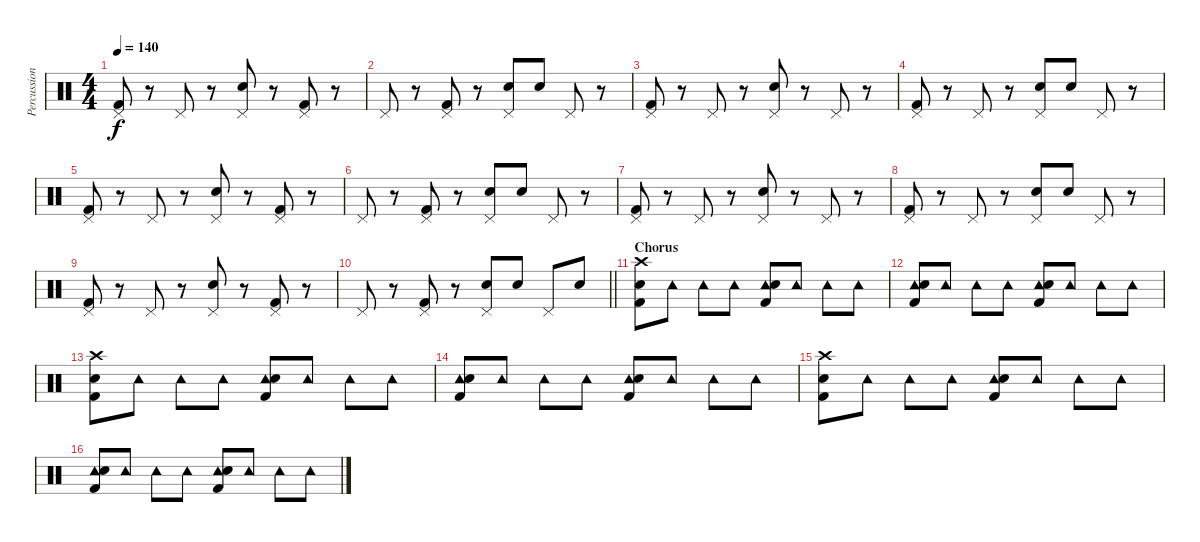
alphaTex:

\track ("Percussion" "Percussion") {instrument percussion}
\staff {score}
\articulation defaults
\ts (4 4)
\tempo 140
\clef neutral
\ks c
("Pedal Hi-Hat (hit)" "Kick (hit) 2").8{dy f} r.8 "Pedal Hi-Hat (hit)".8 r.8 ("Pedal Hi-Hat (hit)" "Snare (hit) 2").8 r.8 ("Pedal Hi-Hat (hit)" "Kick (hit) 2").8 r.8 |
"Pedal Hi-Hat (hit)".8 r.8 ("Pedal Hi-Hat (hit)" "Kick (hit) 2").8 r.8 ("Pedal Hi-Hat (hit)" "Snare (hit) 2").8 "Snare (hit) 2".8 "Pedal Hi-Hat (hit)".8 r.8 |
("Pedal Hi-Hat (hit)" "Kick (hit) 2").8 r.8 "Pedal Hi-Hat (hit)".8 r.8 ("Pedal Hi-Hat (hit)" "Snare (hit) 2").8 r.8 "Pedal Hi-Hat (hit)".8 r.8 |
("Pedal Hi-Hat (hit)" "Kick (hit) 2").8 r.8 "Pedal Hi-Hat (hit)".8 r.8 ("Pedal Hi-Hat (hit)" "Snare (hit) 2").8 "Snare (hit) 2".8 "Pedal Hi-Hat (hit)".8 r.8 |
("Pedal Hi-Hat (hit)" "Kick (hit) 2").8 r.8 "Pedal Hi-Hat (hit)".8 r.8 ("Pedal Hi-Hat (hit)" "Snare (hit) 2").8 r.8 ("Pedal Hi-Hat (hit)" "Kick (hit) 2").8 r.8 |
"Pedal Hi-Hat (hit)".8 r.8 ("Pedal Hi-Hat (hit)" "Kick (hit) 2").8 r.8 ("Pedal Hi-Hat (hit)" "Snare (hit) 2").8 "Snare (hit) 2".8 "Pedal Hi-Hat (hit)".8 r.8 |
("Pedal Hi-Hat (hit)" "Kick (hit) 2").8 r.8 "Pedal Hi-Hat (hit)".8 r.8 ("Pedal Hi-Hat (hit)" "Snare (hit) 2").8 r.8 "Pedal Hi-Hat (hit)".8 r.8 |
("Pedal Hi-Hat (hit)" "Kick (hit) 2").8 r.8 "Pedal Hi-Hat (hit)".8 r.8 ("Pedal Hi-Hat (hit)" "Snare (hit) 2").8 "Snare (hit) 2".8 "Pedal Hi-Hat (hit)".8 r.8 |
("Pedal Hi-Hat (hit)" "Kick (hit) 2").8 r.8 "Pedal Hi-Hat (hit)".8 r.8 ("Pedal Hi-Hat (hit)" "Snare (hit) 2").8 r.8 ("Pedal Hi-Hat (hit)" "Kick (hit) 2").8 r.8 |
\barLineRight lightlight "Pedal Hi-Hat (hit)".8
r.8 ("Pedal Hi-Hat (hit)" "Kick (hit) 2").8 r.8 ("Pedal Hi-Hat (hit)" "Snare (hit) 2").8 "Snare (hit) 2".8 "Pedal Hi-Hat (hit)".8 "Snare (hit) 2".8 |
\section ("" "Chorus")
("Crash high (hit)" "Snare (hit) 2" "Kick (hit) 2").8 "Tambourine (hit)".8 "Tambourine (hit)".8 "Tambourine (hit)".8 ("Tambourine (hit)" "Snare (hit) 2" "Kick (hit) 2").8 "Tambourine (hit)".8 "Tambourine (hit)".8 "Tambourine (hit)".8 |
("Tambourine (hit)" "Snare (hit) 2" "Kick (hit) 2").8 "Tambourine (hit)".8 "Tambourine (hit)".8 "Tambourine (hit)".8 ("Tambourine (hit)" "Snare (hit) 2" "Kick (hit) 2").8 "Tambourine (hit)".8 "Tambourine (hit)".8 "Tambourine (hit)".8 |
("Crash high (hit)" "Snare (hit) 2" "Kick (hit) 2").8 "Tambourine (hit)".8 "Tambourine (hit)".8 "Tambourine (hit)".8 ("Tambourine (hit)" "Snare (hit) 2" "Kick (hit) 2").8 "Tambourine (hit)".8 "Tambourine (hit)".8 "Tambourine (hit)".8 |
("Tambourine (hit)" "Snare (hit) 2" "Kick (hit) 2").8 "Tambourine (hit)".8 "Tambourine (hit)".8 "Tambourine (hit)".8 ("Tambourine (hit)" "Snare (hit) 2" "Kick (hit) 2").8 "Tambourine (hit)".8 "Tambourine (hit)".8 "Tambourine (hit)".8 |
("Crash high (hit)" "Snare (hit) 2" "Kick (hit) 2").8 "Tambourine (hit)".8 "Tambourine (hit)".8 "Tambourine (hit)".8 ("Tambourine (hit)" "Snare (hit) 2" "Kick (hit) 2").8 "Tambourine (hit)".8 "Tambourine (hit)".8 "Tambourine (hit)".8 |
("Tambourine (hit)" "Snare (hit) 2" "Kick (hit) 2").8 "Tambourine (hit)".8 "Tambourine (hit)".8 "Tambourine (hit)".8 ("Tambourine (hit)" "Snare (hit) 2" "Kick (hit) 2").8 "Tambourine (hit)".8 "Tambourine (hit)".8 "Tambourine (hit)".8
